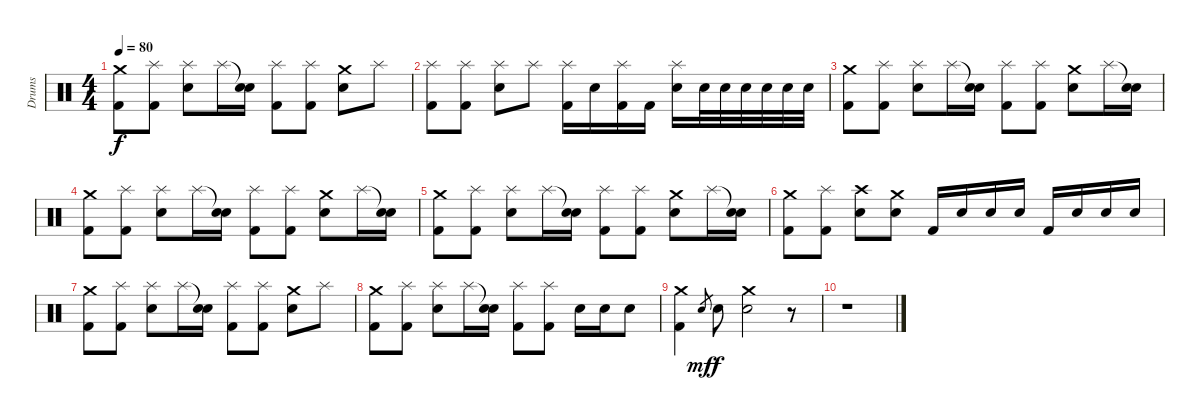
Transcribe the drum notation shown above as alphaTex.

\track ("Drums" "Drums") {instrument percussion}
\staff {score}
\articulation defaults
\ts (4 4)
\tempo 80
\clef neutral
\ks c
("Crash medium (hit)" "Kick (hit) 2").8{dy f} ("Splash (hit)" "Kick (hit) 2").8 ("Splash (hit)" "Snare (hit) 2").8 "Splash (hit)".16 ("Snare (hit)"{t} "Snare (hit) 2").16 ("Splash (hit)" "Kick (hit) 2").8 ("Splash (hit)" "Kick (hit) 2").8 ("Crash medium (hit)" "Snare (hit) 2").8 "Splash (hit)".8 |
("Splash (hit)" "Kick (hit) 2").8 ("Splash (hit)" "Kick (hit) 2").8 ("Splash (hit)" "Snare (hit) 2").8 "Splash (hit)".8 ("Splash (hit)" "Kick (hit) 2").16 "Snare (hit) 2".16 ("Splash (hit)" "Kick (hit) 2").16 "Kick (hit) 2".16 ("Splash (hit)" "Snare (hit) 2").16 "Snare (hit) 2".32 "Snare (hit) 2".32 "Snare (hit) 2".32 "Snare (hit) 2".32 "Snare (hit) 2".32 "Snare (hit) 2".32 |
("Crash medium (hit)" "Kick (hit) 2").8 ("Splash (hit)" "Kick (hit) 2").8 ("Splash (hit)" "Snare (hit) 2").8 "Splash (hit)".16 ("Snare (hit)"{t} "Snare (hit) 2").16 ("Splash (hit)" "Kick (hit) 2").8 ("Splash (hit)" "Kick (hit) 2").8 ("Crash medium (hit)" "Snare (hit) 2").8 "Splash (hit)".16 ("Snare (hit)"{t} "Snare (hit) 2").16 |
("Crash medium (hit)" "Kick (hit) 2").8 ("Splash (hit)" "Kick (hit) 2").8 ("Splash (hit)" "Snare (hit) 2").8 "Splash (hit)".16 ("Snare (hit)"{t} "Snare (hit) 2").16 ("Splash (hit)" "Kick (hit) 2").8 ("Splash (hit)" "Kick (hit) 2").8 ("Crash medium (hit)" "Snare (hit) 2").8 "Splash (hit)".16 ("Snare (hit)"{t} "Snare (hit) 2").16 |
("Crash medium (hit)" "Kick (hit) 2").8 ("Splash (hit)" "Kick (hit) 2").8 ("Splash (hit)" "Snare (hit) 2").8 "Splash (hit)".16 ("Snare (hit)"{t} "Snare (hit) 2").16 ("Splash (hit)" "Kick (hit) 2").8 ("Splash (hit)" "Kick (hit) 2").8 ("Crash medium (hit)" "Snare (hit) 2").8 "Splash (hit)".16 ("Snare (hit)"{t} "Snare (hit) 2").16 |
("Crash medium (hit)" "Kick (hit) 2").8 ("Splash (hit)" "Kick (hit) 2").8 ("Crash high (hit)" "Snare (hit) 2").8 ("Crash medium (hit)" "Snare (hit) 2").8 "Kick (hit) 2".16 "Snare (hit) 2".16 "Snare (hit) 2".16 "Snare (hit) 2".16 "Kick (hit) 2".16 "Snare (hit) 2".16 "Snare (hit) 2".16 "Snare (hit) 2".16 |
("Crash medium (hit)" "Kick (hit) 2").8 ("Splash (hit)" "Kick (hit) 2").8 ("Splash (hit)" "Snare (hit) 2").8 "Splash (hit)".16 ("Snare (hit)"{t} "Snare (hit) 2").16 ("Splash (hit)" "Kick (hit) 2").8 ("Splash (hit)" "Kick (hit) 2").8 ("Crash medium (hit)" "Snare (hit) 2").8 "Splash (hit)".8 |
("Crash medium (hit)" "Kick (hit) 2").8 ("Splash (hit)" "Kick (hit) 2").8 ("Splash (hit)" "Snare (hit) 2").8 "Splash (hit)".16 ("Snare (hit)"{t} "Snare (hit) 2").16 ("Splash (hit)" "Kick (hit) 2").8 ("Splash (hit)" "Kick (hit) 2").8 "Snare (hit) 2".16 "Snare (hit) 2".16 "Snare (hit) 2".8 |
("Crash medium (hit)" "Kick (hit) 2").4 "Snare (hit) 2".8{gr dy mf} "Snare (hit) 2".8{dy f} ("Crash medium (hit)" "Snare (hit) 2").2 r.8 |
r.1
